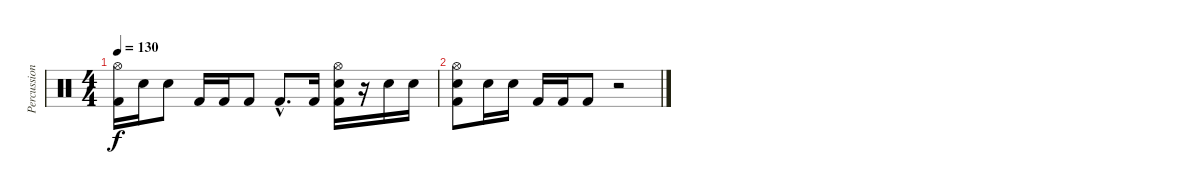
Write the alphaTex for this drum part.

\track ("Percussion" "Percussion") {instrument percussion}
\staff {score}
\articulation defaults
\ts (4 4)
\tempo 130
\clef neutral
\ks c
("Hi-Hat (open)" "Kick (hit) 2").16{dy f} "Electric Snare (hit)".16 "Electric Snare (hit)".8 "Kick (hit) 2".16 "Kick (hit) 2".16 "Kick (hit) 2".8 "Kick (hit) 2"{hac}.8{d} "Kick (hit) 2".16 ("Hi-Hat (open)" "Kick (hit) 2" "Electric Snare (hit)").16 r.16 "Electric Snare (hit)".16 "Electric Snare (hit)".16 |
("Hi-Hat (open)" "Electric Snare (hit)" "Kick (hit) 2").8 "Electric Snare (hit)".16 "Electric Snare (hit)".16 "Kick (hit) 2".16 "Kick (hit) 2".16 "Kick (hit) 2".8 r.2
